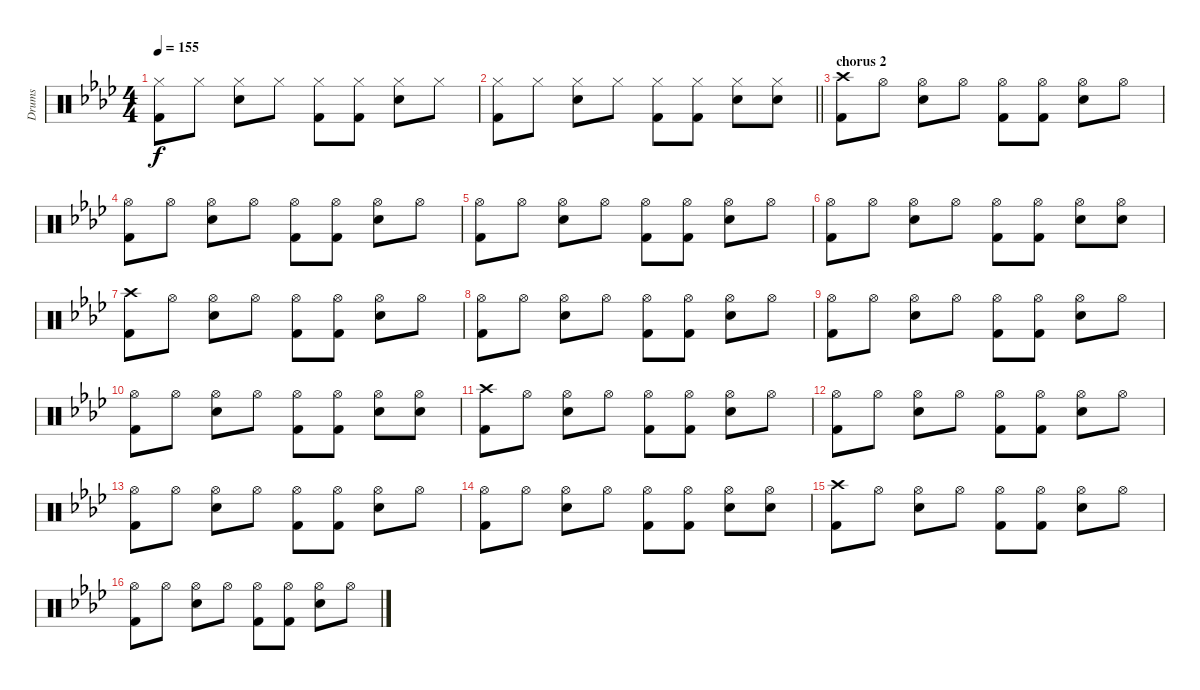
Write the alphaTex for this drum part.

\track ("Drums" "Drums") {instrument percussion}
\staff {score}
\articulation defaults
\ts (4 4)
\tempo 155
\clef neutral
\ks fminor
("Hi-Hat (closed)" "Kick (hit) 2").8{dy f} "Hi-Hat (closed)".8 ("Hi-Hat (closed)" "Snare (hit) 2").8 "Hi-Hat (closed)".8 ("Hi-Hat (closed)" "Kick (hit) 2").8 ("Hi-Hat (closed)" "Kick (hit) 2").8 ("Hi-Hat (closed)" "Snare (hit) 2").8 "Hi-Hat (closed)".8 |
\barLineRight lightlight
("Hi-Hat (closed)" "Kick (hit) 2").8 "Hi-Hat (closed)".8 ("Hi-Hat (closed)" "Snare (hit) 2").8 "Hi-Hat (closed)".8 ("Hi-Hat (closed)" "Kick (hit) 2").8 ("Hi-Hat (closed)" "Kick (hit) 2").8 ("Hi-Hat (closed)" "Snare (hit) 2").8 ("Hi-Hat (closed)" "Snare (hit) 2").8 |
\section ("" "chorus 2")
("Crash high (hit)" "Kick (hit) 2").8 "Hi-Hat (open)".8 ("Hi-Hat (open)" "Snare (hit) 2").8 "Hi-Hat (open)".8 ("Hi-Hat (open)" "Kick (hit) 2").8 ("Hi-Hat (open)" "Kick (hit) 2").8 ("Hi-Hat (open)" "Snare (hit) 2").8 "Hi-Hat (open)".8 |
("Hi-Hat (open)" "Kick (hit) 2").8 "Hi-Hat (open)".8 ("Hi-Hat (open)" "Snare (hit) 2").8 "Hi-Hat (open)".8 ("Hi-Hat (open)" "Kick (hit) 2").8 ("Hi-Hat (open)" "Kick (hit) 2").8 ("Hi-Hat (open)" "Snare (hit) 2").8 "Hi-Hat (open)".8 |
("Hi-Hat (open)" "Kick (hit) 2").8 "Hi-Hat (open)".8 ("Hi-Hat (open)" "Snare (hit) 2").8 "Hi-Hat (open)".8 ("Hi-Hat (open)" "Kick (hit) 2").8 ("Hi-Hat (open)" "Kick (hit) 2").8 ("Hi-Hat (open)" "Snare (hit) 2").8 "Hi-Hat (open)".8 |
("Hi-Hat (open)" "Kick (hit) 2").8 "Hi-Hat (open)".8 ("Hi-Hat (open)" "Snare (hit) 2").8 "Hi-Hat (open)".8 ("Hi-Hat (open)" "Kick (hit) 2").8 ("Hi-Hat (open)" "Kick (hit) 2").8 ("Hi-Hat (open)" "Snare (hit) 2").8 ("Hi-Hat (open)" "Snare (hit) 2").8 |
("Crash high (hit)" "Kick (hit) 2").8 "Hi-Hat (open)".8 ("Hi-Hat (open)" "Snare (hit) 2").8 "Hi-Hat (open)".8 ("Hi-Hat (open)" "Kick (hit) 2").8 ("Hi-Hat (open)" "Kick (hit) 2").8 ("Hi-Hat (open)" "Snare (hit) 2").8 "Hi-Hat (open)".8 |
("Hi-Hat (open)" "Kick (hit) 2").8 "Hi-Hat (open)".8 ("Hi-Hat (open)" "Snare (hit) 2").8 "Hi-Hat (open)".8 ("Hi-Hat (open)" "Kick (hit) 2").8 ("Hi-Hat (open)" "Kick (hit) 2").8 ("Hi-Hat (open)" "Snare (hit) 2").8 "Hi-Hat (open)".8 |
("Hi-Hat (open)" "Kick (hit) 2").8 "Hi-Hat (open)".8 ("Hi-Hat (open)" "Snare (hit) 2").8 "Hi-Hat (open)".8 ("Hi-Hat (open)" "Kick (hit) 2").8 ("Hi-Hat (open)" "Kick (hit) 2").8 ("Hi-Hat (open)" "Snare (hit) 2").8 "Hi-Hat (open)".8 |
("Hi-Hat (open)" "Kick (hit) 2").8 "Hi-Hat (open)".8 ("Hi-Hat (open)" "Snare (hit) 2").8 "Hi-Hat (open)".8 ("Hi-Hat (open)" "Kick (hit) 2").8 ("Hi-Hat (open)" "Kick (hit) 2").8 ("Hi-Hat (open)" "Snare (hit) 2").8 ("Hi-Hat (open)" "Snare (hit) 2").8 |
("Crash high (hit)" "Kick (hit) 2").8 "Hi-Hat (open)".8 ("Hi-Hat (open)" "Snare (hit) 2").8 "Hi-Hat (open)".8 ("Hi-Hat (open)" "Kick (hit) 2").8 ("Hi-Hat (open)" "Kick (hit) 2").8 ("Hi-Hat (open)" "Snare (hit) 2").8 "Hi-Hat (open)".8 |
("Hi-Hat (open)" "Kick (hit) 2").8 "Hi-Hat (open)".8 ("Hi-Hat (open)" "Snare (hit) 2").8 "Hi-Hat (open)".8 ("Hi-Hat (open)" "Kick (hit) 2").8 ("Hi-Hat (open)" "Kick (hit) 2").8 ("Hi-Hat (open)" "Snare (hit) 2").8 "Hi-Hat (open)".8 |
("Hi-Hat (open)" "Kick (hit) 2").8 "Hi-Hat (open)".8 ("Hi-Hat (open)" "Snare (hit) 2").8 "Hi-Hat (open)".8 ("Hi-Hat (open)" "Kick (hit) 2").8 ("Hi-Hat (open)" "Kick (hit) 2").8 ("Hi-Hat (open)" "Snare (hit) 2").8 "Hi-Hat (open)".8 |
("Hi-Hat (open)" "Kick (hit) 2").8 "Hi-Hat (open)".8 ("Hi-Hat (open)" "Snare (hit) 2").8 "Hi-Hat (open)".8 ("Hi-Hat (open)" "Kick (hit) 2").8 ("Hi-Hat (open)" "Kick (hit) 2").8 ("Hi-Hat (open)" "Snare (hit) 2").8 ("Hi-Hat (open)" "Snare (hit) 2").8 |
("Crash high (hit)" "Kick (hit) 2").8 "Hi-Hat (open)".8 ("Hi-Hat (open)" "Snare (hit) 2").8 "Hi-Hat (open)".8 ("Hi-Hat (open)" "Kick (hit) 2").8 ("Hi-Hat (open)" "Kick (hit) 2").8 ("Hi-Hat (open)" "Snare (hit) 2").8 "Hi-Hat (open)".8 |
("Hi-Hat (open)" "Kick (hit) 2").8 "Hi-Hat (open)".8 ("Hi-Hat (open)" "Snare (hit) 2").8 "Hi-Hat (open)".8 ("Hi-Hat (open)" "Kick (hit) 2").8 ("Hi-Hat (open)" "Kick (hit) 2").8 ("Hi-Hat (open)" "Snare (hit) 2").8 "Hi-Hat (open)".8
